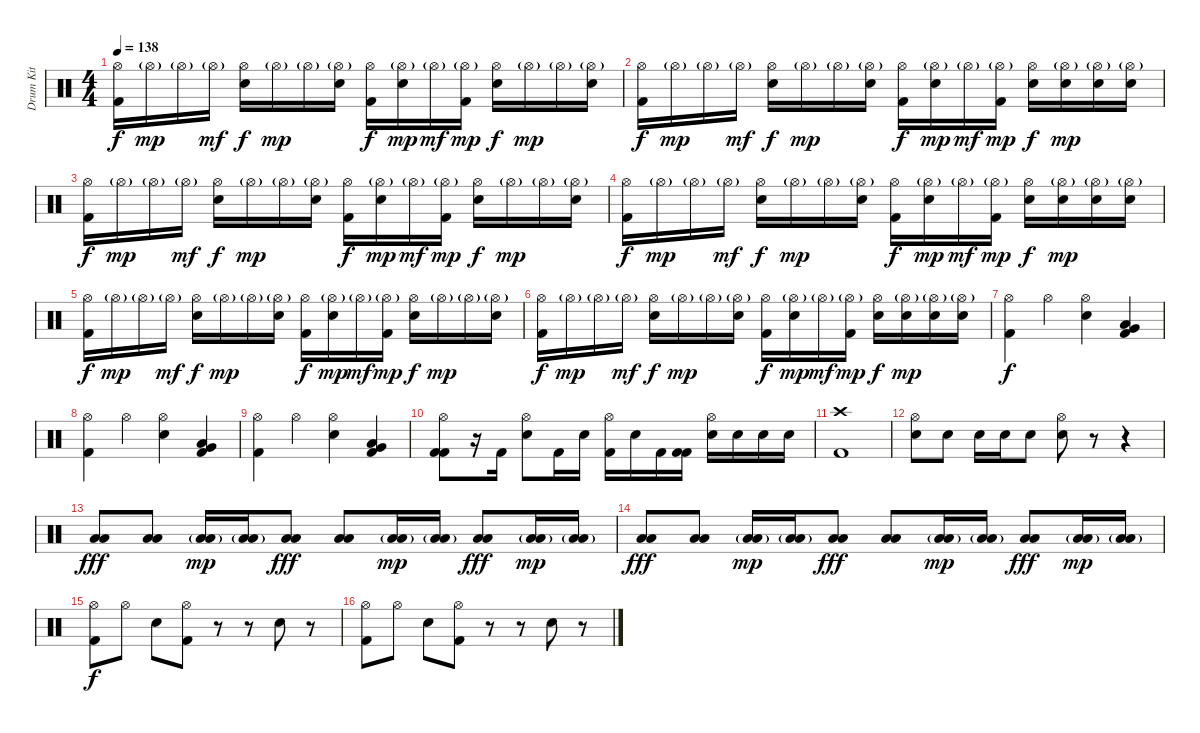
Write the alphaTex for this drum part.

\track ("Drum Kit" "Drum Kit") {instrument percussion}
\staff {score}
\articulation defaults
\ts (4 4)
\tempo 138
\clef neutral
\ks c
("Hi-Hat (open)" "Kick (hit) 2").16{dy f} "Hi-Hat (open)"{g}.16{dy mp} "Hi-Hat (open)"{g}.16 "Hi-Hat (open)"{g}.16{dy mf} ("Hi-Hat (open)" "Snare (hit) 2").16{dy f} "Hi-Hat (open)"{g}.16{dy mp} "Hi-Hat (open)"{g}.16 ("Hi-Hat (open)"{g} "Snare (hit) 2").16 ("Hi-Hat (open)" "Kick (hit) 2").16{dy f} ("Hi-Hat (open)"{g} "Snare (hit) 2").16{dy mp} "Hi-Hat (open)"{g}.16{dy mf} ("Hi-Hat (open)"{g} "Kick (hit) 2").16{dy mp} ("Hi-Hat (open)" "Snare (hit) 2").16{dy f} "Hi-Hat (open)"{g}.16{dy mp} "Hi-Hat (open)"{g}.16 ("Hi-Hat (open)"{g} "Snare (hit) 2").16 |
("Hi-Hat (open)" "Kick (hit) 2").16{dy f} "Hi-Hat (open)"{g}.16{dy mp} "Hi-Hat (open)"{g}.16 "Hi-Hat (open)"{g}.16{dy mf} ("Hi-Hat (open)" "Snare (hit) 2").16{dy f} "Hi-Hat (open)"{g}.16{dy mp} "Hi-Hat (open)"{g}.16 ("Hi-Hat (open)"{g} "Snare (hit) 2").16 ("Hi-Hat (open)" "Kick (hit) 2").16{dy f} ("Hi-Hat (open)"{g} "Snare (hit) 2").16{dy mp} "Hi-Hat (open)"{g}.16{dy mf} ("Hi-Hat (open)"{g} "Kick (hit) 2").16{dy mp} ("Hi-Hat (open)" "Snare (hit) 2").16{dy f} ("Hi-Hat (open)"{g} "Snare (hit) 2").16{dy mp} ("Hi-Hat (open)"{g} "Snare (hit) 2").16 ("Hi-Hat (open)"{g} "Snare (hit) 2").16 |
("Hi-Hat (open)" "Kick (hit) 2").16{dy f} "Hi-Hat (open)"{g}.16{dy mp} "Hi-Hat (open)"{g}.16 "Hi-Hat (open)"{g}.16{dy mf} ("Hi-Hat (open)" "Snare (hit) 2").16{dy f} "Hi-Hat (open)"{g}.16{dy mp} "Hi-Hat (open)"{g}.16 ("Hi-Hat (open)"{g} "Snare (hit) 2").16 ("Hi-Hat (open)" "Kick (hit) 2").16{dy f} ("Hi-Hat (open)"{g} "Snare (hit) 2").16{dy mp} "Hi-Hat (open)"{g}.16{dy mf} ("Hi-Hat (open)"{g} "Kick (hit) 2").16{dy mp} ("Hi-Hat (open)" "Snare (hit) 2").16{dy f} "Hi-Hat (open)"{g}.16{dy mp} "Hi-Hat (open)"{g}.16 ("Hi-Hat (open)"{g} "Snare (hit) 2").16 |
("Hi-Hat (open)" "Kick (hit) 2").16{dy f} "Hi-Hat (open)"{g}.16{dy mp} "Hi-Hat (open)"{g}.16 "Hi-Hat (open)"{g}.16{dy mf} ("Hi-Hat (open)" "Snare (hit) 2").16{dy f} "Hi-Hat (open)"{g}.16{dy mp} "Hi-Hat (open)"{g}.16 ("Hi-Hat (open)"{g} "Snare (hit) 2").16 ("Hi-Hat (open)" "Kick (hit) 2").16{dy f} ("Hi-Hat (open)"{g} "Snare (hit) 2").16{dy mp} "Hi-Hat (open)"{g}.16{dy mf} ("Hi-Hat (open)"{g} "Kick (hit) 2").16{dy mp} ("Hi-Hat (open)" "Snare (hit) 2").16{dy f} ("Hi-Hat (open)"{g} "Snare (hit) 2").16{dy mp} ("Hi-Hat (open)"{g} "Snare (hit) 2").16 ("Hi-Hat (open)"{g} "Snare (hit) 2").16 |
("Hi-Hat (open)" "Kick (hit) 2").16{dy f} "Hi-Hat (open)"{g}.16{dy mp} "Hi-Hat (open)"{g}.16 "Hi-Hat (open)"{g}.16{dy mf} ("Hi-Hat (open)" "Snare (hit) 2").16{dy f} "Hi-Hat (open)"{g}.16{dy mp} "Hi-Hat (open)"{g}.16 ("Hi-Hat (open)"{g} "Snare (hit) 2").16 ("Hi-Hat (open)" "Kick (hit) 2").16{dy f} ("Hi-Hat (open)"{g} "Snare (hit) 2").16{dy mp} "Hi-Hat (open)"{g}.16{dy mf} ("Hi-Hat (open)"{g} "Kick (hit) 2").16{dy mp} ("Hi-Hat (open)" "Snare (hit) 2").16{dy f} "Hi-Hat (open)"{g}.16{dy mp} "Hi-Hat (open)"{g}.16 ("Hi-Hat (open)"{g} "Snare (hit) 2").16 |
("Hi-Hat (open)" "Kick (hit) 2").16{dy f} "Hi-Hat (open)"{g}.16{dy mp} "Hi-Hat (open)"{g}.16 "Hi-Hat (open)"{g}.16{dy mf} ("Hi-Hat (open)" "Snare (hit) 2").16{dy f} "Hi-Hat (open)"{g}.16{dy mp} "Hi-Hat (open)"{g}.16 ("Hi-Hat (open)"{g} "Snare (hit) 2").16 ("Hi-Hat (open)" "Kick (hit) 2").16{dy f} ("Hi-Hat (open)"{g} "Snare (hit) 2").16{dy mp} "Hi-Hat (open)"{g}.16{dy mf} ("Hi-Hat (open)"{g} "Kick (hit) 2").16{dy mp} ("Hi-Hat (open)" "Snare (hit) 2").16{dy f} ("Hi-Hat (open)"{g} "Snare (hit) 2").16{dy mp} ("Hi-Hat (open)"{g} "Snare (hit) 2").16 ("Hi-Hat (open)"{g} "Snare (hit) 2").16 |
("Hi-Hat (open)" "Kick (hit) 2").4{dy f} "Hi-Hat (open)".4 ("Hi-Hat (open)" "Snare (hit) 2").4 ("Very Low Tom (hit)" "Low Floor Tom (hit)" "Kick (hit) 2").4 |
("Hi-Hat (open)" "Kick (hit) 2").4 "Hi-Hat (open)".4 ("Hi-Hat (open)" "Snare (hit) 2").4 ("Very Low Tom (hit)" "Low Floor Tom (hit)" "Kick (hit) 2").4 |
("Hi-Hat (open)" "Kick (hit) 2").4 "Hi-Hat (open)".4 ("Hi-Hat (open)" "Snare (hit) 2").4 ("Very Low Tom (hit)" "Low Floor Tom (hit)" "Kick (hit) 2").4 |
("Hi-Hat (open)" "Kick (hit) 2" "Kick (hit) 2").8 r.16 "Kick (hit) 2".16 ("Hi-Hat (open)" "Snare (hit) 2").8 "Kick (hit) 2".16 "Snare (hit) 2".16 ("Hi-Hat (open)" "Kick (hit) 2").16 "Snare (hit) 2".16 "Kick (hit) 2".16 ("Kick (hit) 2" "Kick (hit) 2").16 ("Hi-Hat (open)" "Snare (hit) 2").16 "Snare (hit) 2".16 "Snare (hit) 2".16 "Snare (hit) 2".16 |
("Crash high (hit)" "Kick (hit) 2").1 |
("Hi-Hat (open)" "Electric Snare (hit)").8 "Electric Snare (hit)".8 "Electric Snare (hit)".16 "Electric Snare (hit)".16 "Electric Snare (hit)".8 ("Hi-Hat (open)" "Electric Snare (hit)").8 r.8 r.4 |
("Low Floor Tom (hit)" "Low Floor Tom (hit)").8{dy fff} ("Low Floor Tom (hit)" "Low Floor Tom (hit)").8 ("Low Floor Tom (hit)"{g} "Low Floor Tom (hit)").16{dy mp} ("Low Floor Tom (hit)"{g} "Low Floor Tom (hit)").16 ("Low Floor Tom (hit)" "Low Floor Tom (hit)").8{dy fff} ("Low Floor Tom (hit)" "Low Floor Tom (hit)").8 ("Low Floor Tom (hit)"{g} "Low Floor Tom (hit)").16{dy mp} ("Low Floor Tom (hit)"{g} "Low Floor Tom (hit)").16 ("Low Floor Tom (hit)" "Low Floor Tom (hit)").8{dy fff} ("Low Floor Tom (hit)"{g} "Low Floor Tom (hit)").16{dy mp} ("Low Floor Tom (hit)"{g} "Low Floor Tom (hit)").16 |
("Low Floor Tom (hit)" "Low Floor Tom (hit)").8{dy fff} ("Low Floor Tom (hit)" "Low Floor Tom (hit)").8 ("Low Floor Tom (hit)"{g} "Low Floor Tom (hit)").16{dy mp} ("Low Floor Tom (hit)"{g} "Low Floor Tom (hit)").16 ("Low Floor Tom (hit)" "Low Floor Tom (hit)").8{dy fff} ("Low Floor Tom (hit)" "Low Floor Tom (hit)").8 ("Low Floor Tom (hit)"{g} "Low Floor Tom (hit)").16{dy mp} ("Low Floor Tom (hit)"{g} "Low Floor Tom (hit)").16 ("Low Floor Tom (hit)" "Low Floor Tom (hit)").8{dy fff} ("Low Floor Tom (hit)"{g} "Low Floor Tom (hit)").16{dy mp} ("Low Floor Tom (hit)"{g} "Low Floor Tom (hit)").16 |
("Hi-Hat (open)" "Kick (hit) 2").8{dy f} "Hi-Hat (open)".8 "Snare (hit) 2".8 ("Hi-Hat (open)" "Kick (hit) 2").8 r.8 r.8 "Snare (hit) 2".8 r.8 |
("Hi-Hat (open)" "Kick (hit) 2").8 "Hi-Hat (open)".8 "Snare (hit) 2".8 ("Hi-Hat (open)" "Kick (hit) 2").8 r.8 r.8 "Snare (hit) 2".8 r.8
